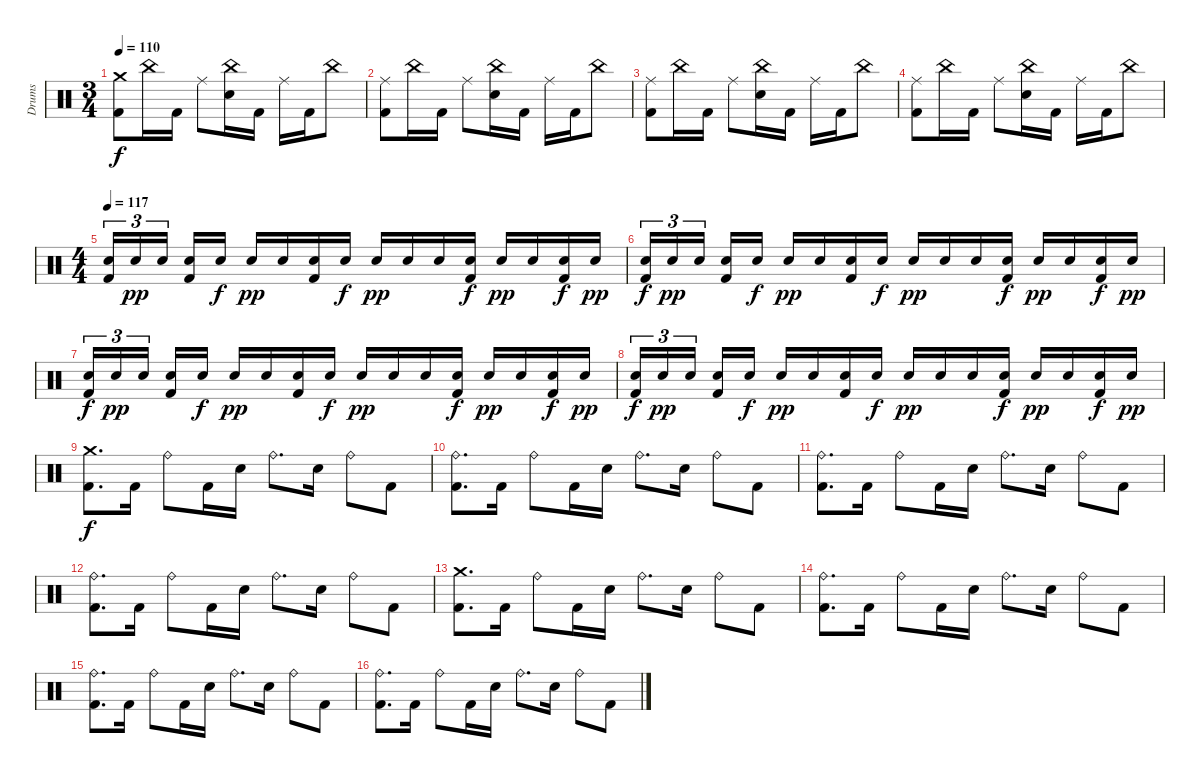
\track ("Drums" "Drums") {instrument percussion}
\staff {score}
\articulation defaults
\ts (3 4)
\tempo 110
\clef neutral
\ks c
("Kick (hit) 2" "Crash medium (hit)").8{dy f} "China (hit)".16 "Kick (hit) 2".16 "Ride (middle)".8 ("China (hit)" "Electric Snare (hit)").16 "Kick (hit) 2".16 "Ride (middle)".16 "Kick (hit) 2".16 "China (hit)".8 |
("Kick (hit) 2" "Ride (middle)").8 "China (hit)".16 "Kick (hit) 2".16 "Ride (middle)".8 ("China (hit)" "Electric Snare (hit)").16 "Kick (hit) 2".16 "Ride (middle)".16 "Kick (hit) 2".16 "China (hit)".8 |
("Kick (hit) 2" "Ride (middle)").8 "China (hit)".16 "Kick (hit) 2".16 "Ride (middle)".8 ("China (hit)" "Electric Snare (hit)").16 "Kick (hit) 2".16 "Ride (middle)".16 "Kick (hit) 2".16 "China (hit)".8 |
("Kick (hit) 2" "Ride (middle)").8 "China (hit)".16 "Kick (hit) 2".16 "Ride (middle)".8 ("China (hit)" "Electric Snare (hit)").16 "Kick (hit) 2".16 "Ride (middle)".16 "Kick (hit) 2".16 "China (hit)".8 |
\ts (4 4)
\tempo 117
("Kick (hit) 2" "Electric Snare (hit)").16{tu (3 2)} "Electric Snare (hit)".16{tu (3 2) dy pp} "Electric Snare (hit)".16{tu (3 2) beam splitsecondary} ("Kick (hit) 2" "Electric Snare (hit)").16 "Electric Snare (hit)".16{dy f} "Electric Snare (hit)".16{dy pp} "Electric Snare (hit)".16 ("Kick (hit) 2" "Electric Snare (hit)").16 "Electric Snare (hit)".16{dy f} "Electric Snare (hit)".16{dy pp} "Electric Snare (hit)".16 "Electric Snare (hit)".16 ("Kick (hit) 2" "Electric Snare (hit)").16{dy f} "Electric Snare (hit)".16{dy pp} "Electric Snare (hit)".16 ("Kick (hit) 2" "Electric Snare (hit)").16{dy f} "Electric Snare (hit)".16{dy pp} |
("Kick (hit) 2" "Electric Snare (hit)").16{tu (3 2) dy f} "Electric Snare (hit)".16{tu (3 2) dy pp} "Electric Snare (hit)".16{tu (3 2) beam splitsecondary} ("Kick (hit) 2" "Electric Snare (hit)").16 "Electric Snare (hit)".16{dy f} "Electric Snare (hit)".16{dy pp} "Electric Snare (hit)".16 ("Kick (hit) 2" "Electric Snare (hit)").16 "Electric Snare (hit)".16{dy f} "Electric Snare (hit)".16{dy pp} "Electric Snare (hit)".16 "Electric Snare (hit)".16 ("Kick (hit) 2" "Electric Snare (hit)").16{dy f} "Electric Snare (hit)".16{dy pp} "Electric Snare (hit)".16 ("Kick (hit) 2" "Electric Snare (hit)").16{dy f} "Electric Snare (hit)".16{dy pp} |
("Kick (hit) 2" "Electric Snare (hit)").16{tu (3 2) dy f} "Electric Snare (hit)".16{tu (3 2) dy pp} "Electric Snare (hit)".16{tu (3 2) beam splitsecondary} ("Kick (hit) 2" "Electric Snare (hit)").16 "Electric Snare (hit)".16{dy f} "Electric Snare (hit)".16{dy pp} "Electric Snare (hit)".16 ("Kick (hit) 2" "Electric Snare (hit)").16 "Electric Snare (hit)".16{dy f} "Electric Snare (hit)".16{dy pp} "Electric Snare (hit)".16 "Electric Snare (hit)".16 ("Kick (hit) 2" "Electric Snare (hit)").16{dy f} "Electric Snare (hit)".16{dy pp} "Electric Snare (hit)".16 ("Kick (hit) 2" "Electric Snare (hit)").16{dy f} "Electric Snare (hit)".16{dy pp} |
("Kick (hit) 2" "Electric Snare (hit)").16{tu (3 2) dy f} "Electric Snare (hit)".16{tu (3 2) dy pp} "Electric Snare (hit)".16{tu (3 2) beam splitsecondary} ("Kick (hit) 2" "Electric Snare (hit)").16 "Electric Snare (hit)".16{dy f} "Electric Snare (hit)".16{dy pp} "Electric Snare (hit)".16 ("Kick (hit) 2" "Electric Snare (hit)").16 "Electric Snare (hit)".16{dy f} "Electric Snare (hit)".16{dy pp} "Electric Snare (hit)".16 "Electric Snare (hit)".16 ("Kick (hit) 2" "Electric Snare (hit)").16{dy f} "Electric Snare (hit)".16{dy pp} "Electric Snare (hit)".16 ("Kick (hit) 2" "Electric Snare (hit)").16{dy f} "Electric Snare (hit)".16{dy pp} |
("Kick (hit) 2" "Crash medium (hit)").8{d dy f} "Kick (hit) 2".16 "Ride (bell)".8 "Kick (hit) 2".16 "Electric Snare (hit)".16 "Ride (bell)".8{d} "Electric Snare (hit)".16 "Ride (bell)".8 "Kick (hit) 2".8 |
("Kick (hit) 2" "Ride (bell)").8{d} "Kick (hit) 2".16 "Ride (bell)".8 "Kick (hit) 2".16 "Electric Snare (hit)".16 "Ride (bell)".8{d} "Electric Snare (hit)".16 "Ride (bell)".8 "Kick (hit) 2".8 |
("Kick (hit) 2" "Ride (bell)").8{d} "Kick (hit) 2".16 "Ride (bell)".8 "Kick (hit) 2".16 "Electric Snare (hit)".16 "Ride (bell)".8{d} "Electric Snare (hit)".16 "Ride (bell)".8 "Kick (hit) 2".8 |
("Kick (hit) 2" "Ride (bell)").8{d} "Kick (hit) 2".16 "Ride (bell)".8 "Kick (hit) 2".16 "Electric Snare (hit)".16 "Ride (bell)".8{d} "Electric Snare (hit)".16 "Ride (bell)".8 "Kick (hit) 2".8 |
("Kick (hit) 2" "Crash medium (hit)").8{d} "Kick (hit) 2".16 "Ride (bell)".8 "Kick (hit) 2".16 "Electric Snare (hit)".16 "Ride (bell)".8{d} "Electric Snare (hit)".16 "Ride (bell)".8 "Kick (hit) 2".8 |
("Kick (hit) 2" "Ride (bell)").8{d} "Kick (hit) 2".16 "Ride (bell)".8 "Kick (hit) 2".16 "Electric Snare (hit)".16 "Ride (bell)".8{d} "Electric Snare (hit)".16 "Ride (bell)".8 "Kick (hit) 2".8 |
("Kick (hit) 2" "Ride (bell)").8{d} "Kick (hit) 2".16 "Ride (bell)".8 "Kick (hit) 2".16 "Electric Snare (hit)".16 "Ride (bell)".8{d} "Electric Snare (hit)".16 "Ride (bell)".8 "Kick (hit) 2".8 |
("Kick (hit) 2" "Ride (bell)").8{d} "Kick (hit) 2".16 "Ride (bell)".8 "Kick (hit) 2".16 "Electric Snare (hit)".16 "Ride (bell)".8{d} "Electric Snare (hit)".16 "Ride (bell)".8 "Kick (hit) 2".8
